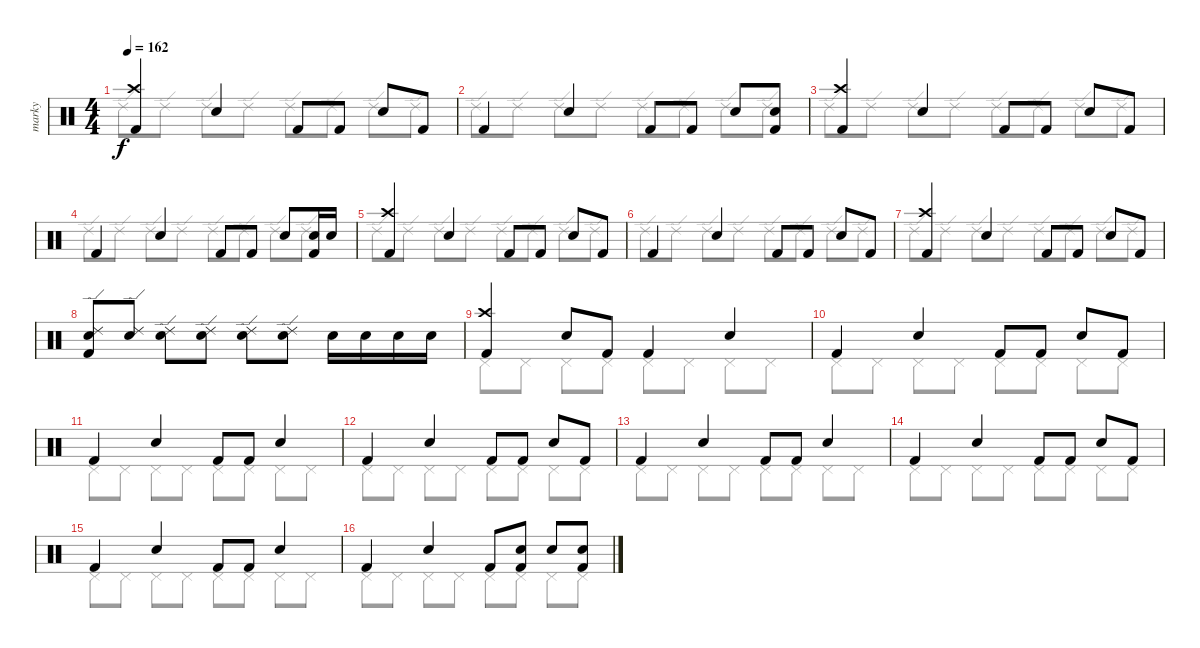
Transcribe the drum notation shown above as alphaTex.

\track ("marky" "marky") {instrument percussion}
\staff {score}
\articulation defaults
\voice
\ts (4 4)
\tempo 162
\clef neutral
\ks c
("Kick (hit) 2" "Crash high (hit)").4{dy f} "Electric Snare (hit)".4 "Kick (hit) 2".8 "Kick (hit) 2".8 "Electric Snare (hit)".8 "Kick (hit) 2".8 |
"Kick (hit) 2".4 "Electric Snare (hit)".4 "Kick (hit) 2".8 "Kick (hit) 2".8 "Electric Snare (hit)".8 ("Kick (hit) 2" "Electric Snare (hit)").8 |
("Kick (hit) 2" "Crash high (hit)").4 "Electric Snare (hit)".4 "Kick (hit) 2".8 "Kick (hit) 2".8 "Electric Snare (hit)".8 "Kick (hit) 2".8 |
"Kick (hit) 2".4 "Electric Snare (hit)".4 "Kick (hit) 2".8 "Kick (hit) 2".8 "Electric Snare (hit)".8 ("Kick (hit) 2" "Electric Snare (hit)").16 "Electric Snare (hit)".16 |
("Kick (hit) 2" "Crash high (hit)").4 "Electric Snare (hit)".4 "Kick (hit) 2".8 "Kick (hit) 2".8 "Electric Snare (hit)".8 "Kick (hit) 2".8 |
"Kick (hit) 2".4 "Electric Snare (hit)".4 "Kick (hit) 2".8 "Kick (hit) 2".8 "Electric Snare (hit)".8 "Kick (hit) 2".8 |
("Kick (hit) 2" "Crash high (hit)").4 "Electric Snare (hit)".4 "Kick (hit) 2".8 "Kick (hit) 2".8 "Electric Snare (hit)".8 "Kick (hit) 2".8 |
("Kick (hit) 2" "Electric Snare (hit)" "Ride (edge) 2").8 ("Electric Snare (hit)" "Ride (edge) 2").8 ("Electric Snare (hit)" "Ride (edge) 2").8 ("Electric Snare (hit)" "Ride (edge) 2").8 ("Electric Snare (hit)" "Ride (edge) 2").8 ("Electric Snare (hit)" "Ride (edge) 2").8 "Electric Snare (hit)".16 "Electric Snare (hit)".16 "Electric Snare (hit)".16 "Electric Snare (hit)".16 |
("Kick (hit) 2" "Crash high (hit)").4 "Electric Snare (hit)".8 "Kick (hit) 2".8 "Kick (hit) 2".4 "Electric Snare (hit)".4 |
"Kick (hit) 2".4 "Electric Snare (hit)".4 "Kick (hit) 2".8 "Kick (hit) 2".8 "Electric Snare (hit)".8 "Kick (hit) 2".8 |
"Kick (hit) 2".4 "Electric Snare (hit)".4 "Kick (hit) 2".8 "Kick (hit) 2".8 "Electric Snare (hit)".4 |
"Kick (hit) 2".4 "Electric Snare (hit)".4 "Kick (hit) 2".8 "Kick (hit) 2".8 "Electric Snare (hit)".8 "Kick (hit) 2".8 |
"Kick (hit) 2".4 "Electric Snare (hit)".4 "Kick (hit) 2".8 "Kick (hit) 2".8 "Electric Snare (hit)".4 |
"Kick (hit) 2".4 "Electric Snare (hit)".4 "Kick (hit) 2".8 "Kick (hit) 2".8 "Electric Snare (hit)".8 "Kick (hit) 2".8 |
"Kick (hit) 2".4 "Electric Snare (hit)".4 "Kick (hit) 2".8 "Kick (hit) 2".8 "Electric Snare (hit)".4 |
"Kick (hit) 2".4 "Electric Snare (hit)".4 "Kick (hit) 2".8 ("Kick (hit) 2" "Electric Snare (hit)").8 "Electric Snare (hit)".8 ("Kick (hit) 2" "Electric Snare (hit)").8
\voice
\clef neutral
\ottava regular
\simile none
\ks c "Ride (edge) 2".8{dy f} "Ride (edge) 2".8 "Ride (edge) 2".8 "Ride (edge) 2".8 "Ride (edge) 2".8 "Ride (edge) 2".8 "Ride (edge) 2".8 "Ride (edge) 2".8
|
"Ride (edge) 2".8 "Ride (edge) 2".8 "Ride (edge) 2".8 "Ride (edge) 2".8 "Ride (edge) 2".8 "Ride (edge) 2".8 "Ride (edge) 2".8 "Ride (edge) 2".8 |
"Ride (edge) 2".8 "Ride (edge) 2".8 "Ride (edge) 2".8 "Ride (edge) 2".8 "Ride (edge) 2".8 "Ride (edge) 2".8 "Ride (edge) 2".8 "Ride (edge) 2".8 |
"Ride (edge) 2".8 "Ride (edge) 2".8 "Ride (edge) 2".8 "Ride (edge) 2".8 "Ride (edge) 2".8 "Ride (edge) 2".8 "Ride (edge) 2".8 "Ride (edge) 2".8 |
"Ride (edge) 2".8 "Ride (edge) 2".8 "Ride (edge) 2".8 "Ride (edge) 2".8 "Ride (edge) 2".8 "Ride (edge) 2".8 "Ride (edge) 2".8 "Ride (edge) 2".8 |
"Ride (edge) 2".8 "Ride (edge) 2".8 "Ride (edge) 2".8 "Ride (edge) 2".8 "Ride (edge) 2".8 "Ride (edge) 2".8 "Ride (edge) 2".8 "Ride (edge) 2".8 |
"Ride (edge) 2".8 "Ride (edge) 2".8 "Ride (edge) 2".8 "Ride (edge) 2".8 "Ride (edge) 2".8 "Ride (edge) 2".8 "Ride (edge) 2".8 "Ride (edge) 2".8 |
|
"Pedal Hi-Hat (hit)".8 "Pedal Hi-Hat (hit)".8 "Pedal Hi-Hat (hit)".8 "Pedal Hi-Hat (hit)".8 "Pedal Hi-Hat (hit)".8 "Pedal Hi-Hat (hit)".8 "Pedal Hi-Hat (hit)".8 "Pedal Hi-Hat (hit)".8 |
"Pedal Hi-Hat (hit)".8 "Pedal Hi-Hat (hit)".8 "Pedal Hi-Hat (hit)".8 "Pedal Hi-Hat (hit)".8 "Pedal Hi-Hat (hit)".8 "Pedal Hi-Hat (hit)".8 "Pedal Hi-Hat (hit)".8 "Pedal Hi-Hat (hit)".8 |
"Pedal Hi-Hat (hit)".8 "Pedal Hi-Hat (hit)".8 "Pedal Hi-Hat (hit)".8 "Pedal Hi-Hat (hit)".8 "Pedal Hi-Hat (hit)".8 "Pedal Hi-Hat (hit)".8 "Pedal Hi-Hat (hit)".8 "Pedal Hi-Hat (hit)".8 |
"Pedal Hi-Hat (hit)".8 "Pedal Hi-Hat (hit)".8 "Pedal Hi-Hat (hit)".8 "Pedal Hi-Hat (hit)".8 "Pedal Hi-Hat (hit)".8 "Pedal Hi-Hat (hit)".8 "Pedal Hi-Hat (hit)".8 "Pedal Hi-Hat (hit)".8 |
"Pedal Hi-Hat (hit)".8 "Pedal Hi-Hat (hit)".8 "Pedal Hi-Hat (hit)".8 "Pedal Hi-Hat (hit)".8 "Pedal Hi-Hat (hit)".8 "Pedal Hi-Hat (hit)".8 "Pedal Hi-Hat (hit)".8 "Pedal Hi-Hat (hit)".8 |
"Pedal Hi-Hat (hit)".8 "Pedal Hi-Hat (hit)".8 "Pedal Hi-Hat (hit)".8 "Pedal Hi-Hat (hit)".8 "Pedal Hi-Hat (hit)".8 "Pedal Hi-Hat (hit)".8 "Pedal Hi-Hat (hit)".8 "Pedal Hi-Hat (hit)".8 |
"Pedal Hi-Hat (hit)".8 "Pedal Hi-Hat (hit)".8 "Pedal Hi-Hat (hit)".8 "Pedal Hi-Hat (hit)".8 "Pedal Hi-Hat (hit)".8 "Pedal Hi-Hat (hit)".8 "Pedal Hi-Hat (hit)".8 "Pedal Hi-Hat (hit)".8 |
"Pedal Hi-Hat (hit)".8 "Pedal Hi-Hat (hit)".8 "Pedal Hi-Hat (hit)".8 "Pedal Hi-Hat (hit)".8 "Pedal Hi-Hat (hit)".8 "Pedal Hi-Hat (hit)".8 "Pedal Hi-Hat (hit)".8 "Pedal Hi-Hat (hit)".8
